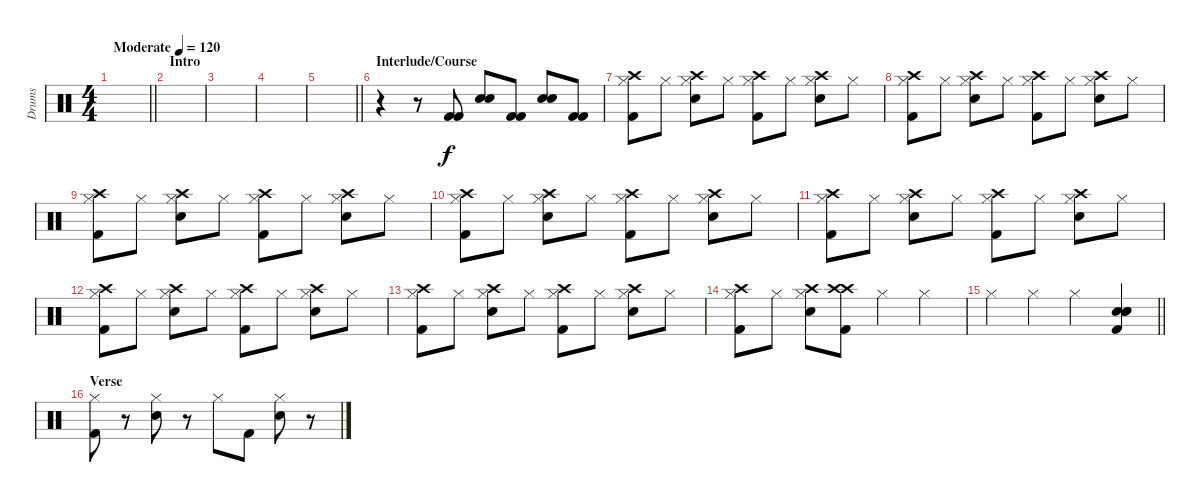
\track ("Drums" "Drums") {instrument percussion}
\staff {score}
\articulation defaults
\ts (4 4)
\tempo (120 "Moderate")
\clef neutral
\barLineRight lightlight
\ks c
|
\section ("" "Intro")
|
|
|
\barLineRight lightlight
|
\section ("" "Interlude/Course")
r.4 r.8 ("Kick (hit) 2" "Kick (hit) 2").8 ("Snare (hit) 2" "Snare (hit) 2").8 ("Kick (hit) 2" "Kick (hit) 2").8 ("Snare (hit) 2" "Snare (hit) 2").8 ("Kick (hit) 2" "Kick (hit) 2").8 |
("Crash high (hit)" "Hi-Hat (closed)" "Kick (hit) 2").8 "Hi-Hat (closed)".8 ("Crash high (hit)" "Hi-Hat (closed)" "Snare (hit) 2").8 "Hi-Hat (closed)".8 ("Crash high (hit)" "Hi-Hat (closed)" "Kick (hit) 2").8 "Hi-Hat (closed)".8 ("Crash high (hit)" "Hi-Hat (closed)" "Snare (hit) 2").8 "Hi-Hat (closed)".8 |
("Crash high (hit)" "Hi-Hat (closed)" "Kick (hit) 2").8 "Hi-Hat (closed)".8 ("Crash high (hit)" "Hi-Hat (closed)" "Snare (hit) 2").8 "Hi-Hat (closed)".8 ("Crash high (hit)" "Hi-Hat (closed)" "Kick (hit) 2").8 "Hi-Hat (closed)".8 ("Crash high (hit)" "Hi-Hat (closed)" "Snare (hit) 2").8 "Hi-Hat (closed)".8 |
("Crash high (hit)" "Hi-Hat (closed)" "Kick (hit) 2").8 "Hi-Hat (closed)".8 ("Crash high (hit)" "Hi-Hat (closed)" "Snare (hit) 2").8 "Hi-Hat (closed)".8 ("Crash high (hit)" "Hi-Hat (closed)" "Kick (hit) 2").8 "Hi-Hat (closed)".8 ("Crash high (hit)" "Hi-Hat (closed)" "Snare (hit) 2").8 "Hi-Hat (closed)".8 |
("Crash high (hit)" "Hi-Hat (closed)" "Kick (hit) 2").8 "Hi-Hat (closed)".8 ("Crash high (hit)" "Hi-Hat (closed)" "Snare (hit) 2").8 "Hi-Hat (closed)".8 ("Crash high (hit)" "Hi-Hat (closed)" "Kick (hit) 2").8 "Hi-Hat (closed)".8 ("Crash high (hit)" "Hi-Hat (closed)" "Snare (hit) 2").8 "Hi-Hat (closed)".8 |
("Crash high (hit)" "Hi-Hat (closed)" "Kick (hit) 2").8 "Hi-Hat (closed)".8 ("Crash high (hit)" "Hi-Hat (closed)" "Snare (hit) 2").8 "Hi-Hat (closed)".8 ("Crash high (hit)" "Hi-Hat (closed)" "Kick (hit) 2").8 "Hi-Hat (closed)".8 ("Crash high (hit)" "Hi-Hat (closed)" "Snare (hit) 2").8 "Hi-Hat (closed)".8 |
("Crash high (hit)" "Hi-Hat (closed)" "Kick (hit) 2").8 "Hi-Hat (closed)".8 ("Crash high (hit)" "Hi-Hat (closed)" "Snare (hit) 2").8 "Hi-Hat (closed)".8 ("Crash high (hit)" "Hi-Hat (closed)" "Kick (hit) 2").8 "Hi-Hat (closed)".8 ("Crash high (hit)" "Hi-Hat (closed)" "Snare (hit) 2").8 "Hi-Hat (closed)".8 |
("Crash high (hit)" "Hi-Hat (closed)" "Kick (hit) 2").8 "Hi-Hat (closed)".8 ("Crash high (hit)" "Hi-Hat (closed)" "Snare (hit) 2").8 "Hi-Hat (closed)".8 ("Crash high (hit)" "Hi-Hat (closed)" "Kick (hit) 2").8 "Hi-Hat (closed)".8 ("Crash high (hit)" "Hi-Hat (closed)" "Snare (hit) 2").8 "Hi-Hat (closed)".8 |
("Crash high (hit)" "Hi-Hat (closed)" "Kick (hit) 2").8 "Hi-Hat (closed)".8 ("Crash high (hit)" "Hi-Hat (closed)" "Snare (hit) 2").8 ("Crash high (hit)" "Crash high (hit)" "Kick (hit) 2").8 "Hi-Hat (closed)".4 "Hi-Hat (closed)".4 |
\barLineRight lightlight "Hi-Hat (closed)".4 "Hi-Hat (closed)".4 "Hi-Hat (closed)".4
("Snare (hit) 2" "Snare (hit) 2" "Snare (hit) 2" "Kick (hit) 2").4 |
\section ("" "Verse")
("Hi-Hat (closed)" "Kick (hit) 2").8 r.8 ("Hi-Hat (closed)" "Snare (hit) 2").8 r.8 "Hi-Hat (closed)".8 "Kick (hit) 2".8 ("Hi-Hat (closed)" "Snare (hit) 2").8 r.8
